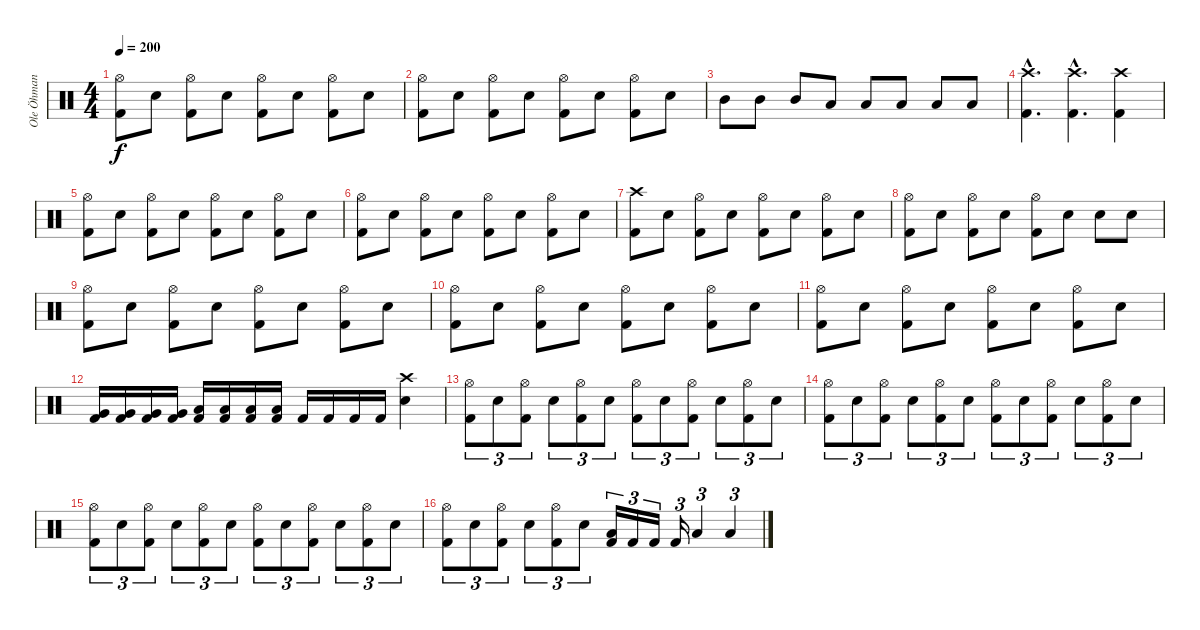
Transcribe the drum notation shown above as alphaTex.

\track ("Ole Öhman" "Ole Öhman") {instrument percussion}
\staff {score}
\articulation defaults
\ts (4 4)
\tempo 200
\clef neutral
\ks c
("Hi-Hat (open)" "Kick (hit) 2").8{dy f} "Snare (hit) 2".8 ("Hi-Hat (open)" "Kick (hit) 2").8 "Snare (hit) 2".8 ("Hi-Hat (open)" "Kick (hit) 2").8 "Snare (hit) 2".8 ("Hi-Hat (open)" "Kick (hit) 2").8 "Snare (hit) 2".8 |
("Hi-Hat (open)" "Kick (hit) 2").8 "Snare (hit) 2".8 ("Hi-Hat (open)" "Kick (hit) 2").8 "Snare (hit) 2".8 ("Hi-Hat (open)" "Kick (hit) 2").8 "Snare (hit) 2".8 ("Hi-Hat (open)" "Kick (hit) 2").8 "Snare (hit) 2".8 |
"Mid Tom (hit)".8 "Mid Tom (hit)".8 "Mid Tom (hit)".8 "Low Tom (hit)".8 "Low Tom (hit)".8 "Low Tom (hit)".8 "Low Floor Tom (hit)".8 "Low Floor Tom (hit)".8 |
("Crash high (hit)"{hac} "Kick (hit) 2"{hac}).4{d} ("Crash high (hit)"{hac} "Kick (hit) 2"{hac}).4{d} ("Crash high (hit)" "Kick (hit) 2").4 |
("Hi-Hat (open)" "Kick (hit) 2").8 "Snare (hit) 2".8 ("Hi-Hat (open)" "Kick (hit) 2").8 "Snare (hit) 2".8 ("Hi-Hat (open)" "Kick (hit) 2").8 "Snare (hit) 2".8 ("Hi-Hat (open)" "Kick (hit) 2").8 "Snare (hit) 2".8 |
("Hi-Hat (open)" "Kick (hit) 2").8 "Snare (hit) 2".8 ("Hi-Hat (open)" "Kick (hit) 2").8 "Snare (hit) 2".8 ("Hi-Hat (open)" "Kick (hit) 2").8 "Snare (hit) 2".8 ("Hi-Hat (open)" "Kick (hit) 2").8 "Snare (hit) 2".8 |
("Crash high (hit)" "Kick (hit) 2").8 "Snare (hit) 2".8 ("Hi-Hat (open)" "Kick (hit) 2").8 "Snare (hit) 2".8 ("Hi-Hat (open)" "Kick (hit) 2").8 "Snare (hit) 2".8 ("Hi-Hat (open)" "Kick (hit) 2").8 "Snare (hit) 2".8 |
("Hi-Hat (open)" "Kick (hit) 2").8 "Snare (hit) 2".8 ("Hi-Hat (open)" "Kick (hit) 2").8 "Snare (hit) 2".8 ("Hi-Hat (open)" "Kick (hit) 2").8 "Snare (hit) 2".8 "Snare (hit) 2".8 "Snare (hit) 2".8 |
("Hi-Hat (open)" "Kick (hit) 2").8 "Snare (hit) 2".8 ("Hi-Hat (open)" "Kick (hit) 2").8 "Snare (hit) 2".8 ("Hi-Hat (open)" "Kick (hit) 2").8 "Snare (hit) 2".8 ("Hi-Hat (open)" "Kick (hit) 2").8 "Snare (hit) 2".8 |
("Hi-Hat (open)" "Kick (hit) 2").8 "Snare (hit) 2".8 ("Hi-Hat (open)" "Kick (hit) 2").8 "Snare (hit) 2".8 ("Hi-Hat (open)" "Kick (hit) 2").8 "Snare (hit) 2".8 ("Hi-Hat (open)" "Kick (hit) 2").8 "Snare (hit) 2".8 |
("Hi-Hat (open)" "Kick (hit) 2").8 "Snare (hit) 2".8 ("Hi-Hat (open)" "Kick (hit) 2").8 "Snare (hit) 2".8 ("Hi-Hat (open)" "Kick (hit) 2").8 "Snare (hit) 2".8 ("Hi-Hat (open)" "Kick (hit) 2").8 "Snare (hit) 2".8 |
("Very Low Tom (hit)" "Kick (hit) 2").16 ("Very Low Tom (hit)" "Kick (hit) 2").16 ("Very Low Tom (hit)" "Kick (hit) 2").16 ("Very Low Tom (hit)" "Kick (hit) 2").16 ("Low Floor Tom (hit)" "Kick (hit) 2").16 ("Low Floor Tom (hit)" "Kick (hit) 2").16 ("Low Floor Tom (hit)" "Kick (hit) 2").16 ("Low Floor Tom (hit)" "Kick (hit) 2").16 "Kick (hit) 2".16 "Kick (hit) 2".16 "Kick (hit) 2".16 "Kick (hit) 2".16 ("Snare (hit) 2" "Crash high (hit)").4 |
("Hi-Hat (open)" "Kick (hit) 2").8{tu (3 2)} "Snare (hit) 2".8{tu (3 2)} ("Hi-Hat (open)" "Kick (hit) 2").8{tu (3 2)} "Snare (hit) 2".8{tu (3 2)} ("Hi-Hat (open)" "Kick (hit) 2").8{tu (3 2)} "Snare (hit) 2".8{tu (3 2)} ("Hi-Hat (open)" "Kick (hit) 2").8{tu (3 2)} "Snare (hit) 2".8{tu (3 2)} ("Hi-Hat (open)" "Kick (hit) 2").8{tu (3 2)} "Snare (hit) 2".8{tu (3 2)} ("Hi-Hat (open)" "Kick (hit) 2").8{tu (3 2)} "Snare (hit) 2".8{tu (3 2)} |
("Hi-Hat (open)" "Kick (hit) 2").8{tu (3 2)} "Snare (hit) 2".8{tu (3 2)} ("Hi-Hat (open)" "Kick (hit) 2").8{tu (3 2)} "Snare (hit) 2".8{tu (3 2)} ("Hi-Hat (open)" "Kick (hit) 2").8{tu (3 2)} "Snare (hit) 2".8{tu (3 2)} ("Hi-Hat (open)" "Kick (hit) 2").8{tu (3 2)} "Snare (hit) 2".8{tu (3 2)} ("Hi-Hat (open)" "Kick (hit) 2").8{tu (3 2)} "Snare (hit) 2".8{tu (3 2)} ("Hi-Hat (open)" "Kick (hit) 2").8{tu (3 2)} "Snare (hit) 2".8{tu (3 2)} |
("Hi-Hat (open)" "Kick (hit) 2").8{tu (3 2)} "Snare (hit) 2".8{tu (3 2)} ("Hi-Hat (open)" "Kick (hit) 2").8{tu (3 2)} "Snare (hit) 2".8{tu (3 2)} ("Hi-Hat (open)" "Kick (hit) 2").8{tu (3 2)} "Snare (hit) 2".8{tu (3 2)} ("Hi-Hat (open)" "Kick (hit) 2").8{tu (3 2)} "Snare (hit) 2".8{tu (3 2)} ("Hi-Hat (open)" "Kick (hit) 2").8{tu (3 2)} "Snare (hit) 2".8{tu (3 2)} ("Hi-Hat (open)" "Kick (hit) 2").8{tu (3 2)} "Snare (hit) 2".8{tu (3 2)} |
("Hi-Hat (open)" "Kick (hit) 2").8{tu (3 2)} "Snare (hit) 2".8{tu (3 2)} ("Hi-Hat (open)" "Kick (hit) 2").8{tu (3 2)} "Snare (hit) 2".8{tu (3 2)} ("Hi-Hat (open)" "Kick (hit) 2").8{tu (3 2)} "Snare (hit) 2".8{tu (3 2)} ("Low Floor Tom (hit)" "Kick (hit) 2").16{tu (3 2)} "Kick (hit) 2".16{tu (3 2)} "Kick (hit) 2".16{tu (3 2)} "Kick (hit) 2".16{tu (3 2)} "Low Floor Tom (hit)".4{tu (3 2)} "Low Floor Tom (hit)".4{tu (3 2)}
